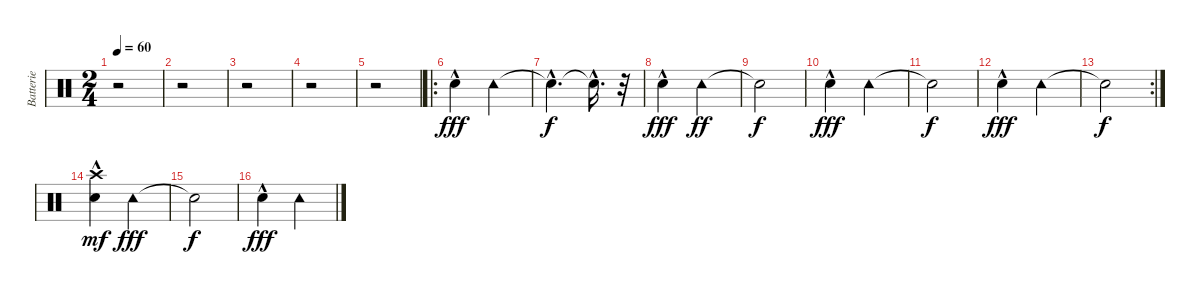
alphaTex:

\track ("Batterie" "Batterie") {instrument percussion}
\staff {score}
\articulation defaults
\ts (2 4)
\tempo 60
\clef neutral
\ks c
r.2{dy fff} |
r.2 |
r.2 |
r.2 |
r.2 |
\ro "Snare (hit)"{hac}.4 "Tambourine (hit)".4
|
"Snare (hit)"{hac t}.4{d dy f} "Snare (hit)"{hac t}.16{d} r.32 |
"Snare (hit)"{hac}.4{dy fff} "Tambourine (hit)".4{dy ff} |
"Snare (hit)"{t}.2{dy f} |
"Snare (hit)"{hac}.4{dy fff} "Tambourine (hit)".4 |
"Snare (hit)"{t}.2{dy f} |
"Snare (hit)"{hac}.4{dy fff} "Tambourine (hit)".4 |
\rc 2 "Snare (hit)"{t}.2{dy f}
|
("Snare (hit)"{hac} "Crash high (hit)").4{dy mf} "Tambourine (hit)".4{dy fff} |
"Snare (hit)"{t}.2{dy f} |
"Snare (hit)"{hac}.4{dy fff} "Tambourine (hit)".4
